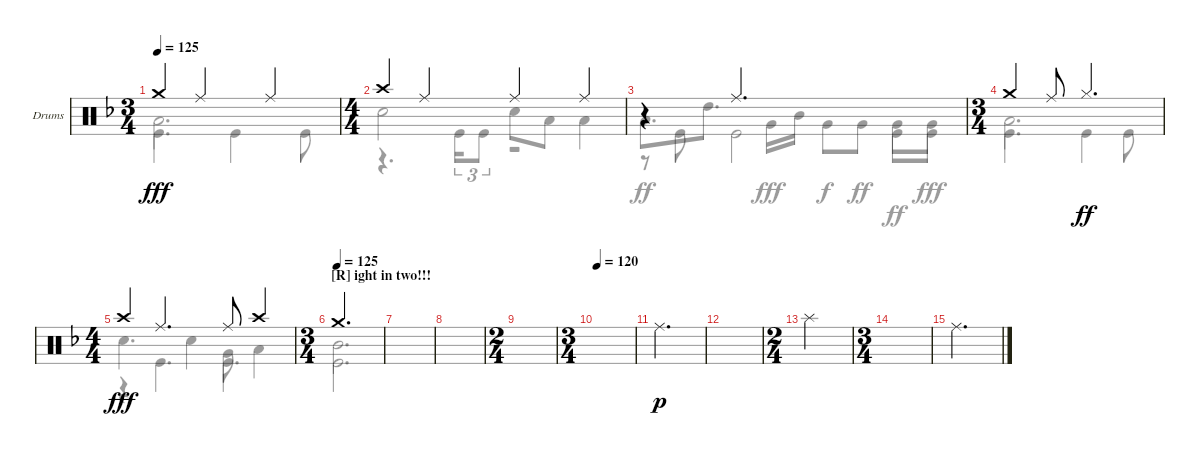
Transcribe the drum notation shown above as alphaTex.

\defaultSystemsLayout 4
\bracketExtendMode groupsimilarinstruments
\firstSystemTrackNameOrientation horizontal
\otherSystemsTrackNameOrientation horizontal
\track ("Drumkit" "Drums") {instrument percussion}
\staff {score}
\articulation defaults
\voice
\ts (3 4)
\tempo 125
\clef neutral
\ks f "Crash medium (hit)".4{dy fff} "Ride (middle)".4 "Ride (middle)".4
|
\ts (4 4)
"Crash high (hit)".4 "Ride (middle)".4 "Ride (middle)".4 "Ride (middle)".4 |
r.4 "Ride (middle)".2{d} |
\ts (3 4)
"Crash medium (hit)".4 "Ride (middle)".8 "Hi-Hat (closed)".4{d dy ff} |
\ts (4 4)
"Crash high (hit)".4{dy fff} "Ride (middle)".4{d} "Ride (middle)".8 "Crash high (hit)".4 |
\ts (3 4)
\section ("R" "ight in two!!!")
\tempo (125)
"Crash medium (hit)".2{d} |
|
|
\ts (2 4)
|
\ts (3 4)
\tempo 120
|
"Ride (middle)".2{d dy p} |
|
\ts (2 4)
"Splash (hit)".2 |
\ts (3 4)
|
"Ride (middle)".2{d} |
\voice
\clef neutral
\ottava regular
\simile none
\ks f "Low Tom (hit)".2{d dy fff}
|
"Snare (hit) 2".2 "Snare (hit) 2".8 "Low Tom (hit)".8 "Low Tom (hit)".4 |
"Low Tom (hit)".8{d dy ff} "High Tom (hit)".8{d} "Very Low Tom (hit)".16{dy fff} "Mid Tom (hit)".16 "Very Low Tom (hit)".8{dy f} "Very Low Tom (hit)".8{dy ff} "Very Low Tom (hit)".8 "Very Low Tom (hit)".8{dy fff} |
"Low Tom (hit)".2{d} |
"Snare (hit) 2".4{d} "Snare (hit) 2".4 "Very Low Tom (hit)".8 "Low Tom (hit)".4 |
"Mid Tom (hit)".2{d} |
|
|
|
|
|
|
|
|
|
\voice
\clef neutral
\ottava regular
\simile none
\ks f "Kick (hit)".4{d dy fff} "Kick (hit)".4 "Kick (hit)".8
|
r.4{d} "Kick (hit)".16{tu (3 2)} "Kick (hit)".8{tu (3 2)} r.2 |
r.8 "Kick (hit)".8 "Kick (hit)".2 "Kick (hit)".8{dy ff} "Kick (hit)".8{dy fff} |
"Kick (hit)".4{d} "Kick (hit)".4 "Kick (hit)".8 |
r.4 "Kick (hit)".4{d} "Kick (hit)".4{d} |
"Kick (hit)".2{d} |
|
|
|
|
|
|
|
|
|
